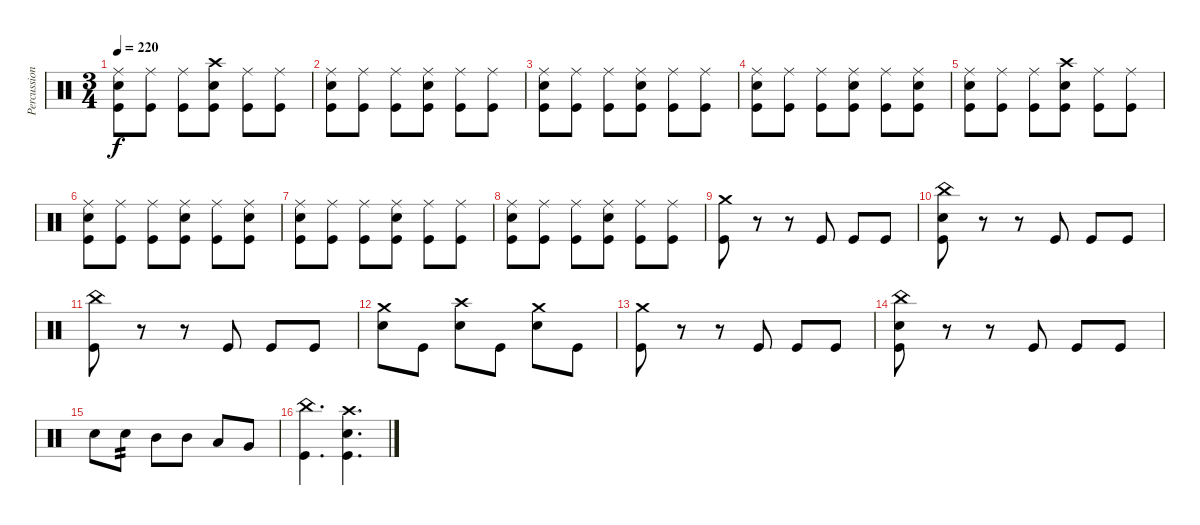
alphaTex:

\track ("Percussion" "Percussion") {instrument percussion}
\staff {score}
\articulation defaults
\ts (3 4)
\tempo 220
\clef neutral
\ks c
("Ride (middle)" "Electric Snare (hit)" "Kick (hit)").8{dy f} ("Ride (middle)" "Kick (hit)").8 ("Ride (middle)" "Kick (hit)").8 ("Crash high (hit)" "Electric Snare (hit)" "Kick (hit)").8 ("Ride (middle)" "Kick (hit)").8 ("Ride (middle)" "Kick (hit)").8 |
("Ride (middle)" "Electric Snare (hit)" "Kick (hit)").8 ("Ride (middle)" "Kick (hit)").8 ("Ride (middle)" "Kick (hit)").8 ("Ride (middle)" "Electric Snare (hit)" "Kick (hit)").8 ("Ride (middle)" "Kick (hit)").8 ("Ride (middle)" "Kick (hit)").8 |
("Ride (middle)" "Electric Snare (hit)" "Kick (hit)").8 ("Ride (middle)" "Kick (hit)").8 ("Ride (middle)" "Kick (hit)").8 ("Ride (middle)" "Electric Snare (hit)" "Kick (hit)").8 ("Ride (middle)" "Kick (hit)").8 ("Ride (middle)" "Kick (hit)").8 |
("Ride (middle)" "Electric Snare (hit)" "Kick (hit)").8 ("Ride (middle)" "Kick (hit)").8 ("Ride (middle)" "Kick (hit)").8 ("Ride (middle)" "Electric Snare (hit)" "Kick (hit)").8 ("Ride (middle)" "Kick (hit)").8 ("Ride (middle)" "Electric Snare (hit)" "Kick (hit)").8 |
("Ride (middle)" "Electric Snare (hit)" "Kick (hit)").8 ("Ride (middle)" "Kick (hit)").8 ("Ride (middle)" "Kick (hit)").8 ("Crash high (hit)" "Electric Snare (hit)" "Kick (hit)").8 ("Ride (middle)" "Kick (hit)").8 ("Ride (middle)" "Kick (hit)").8 |
("Ride (middle)" "Electric Snare (hit)" "Kick (hit)").8 ("Ride (middle)" "Kick (hit)").8 ("Ride (middle)" "Kick (hit)").8 ("Ride (middle)" "Electric Snare (hit)" "Kick (hit)").8 ("Ride (middle)" "Kick (hit)").8 ("Ride (middle)" "Electric Snare (hit)" "Kick (hit)").8 |
("Ride (middle)" "Electric Snare (hit)" "Kick (hit)").8 ("Ride (middle)" "Kick (hit)").8 ("Ride (middle)" "Kick (hit)").8 ("Ride (middle)" "Electric Snare (hit)" "Kick (hit)").8 ("Ride (middle)" "Kick (hit)").8 ("Ride (middle)" "Kick (hit)").8 |
("Ride (middle)" "Electric Snare (hit)" "Kick (hit)").8 ("Ride (middle)" "Kick (hit)").8 ("Ride (middle)" "Kick (hit)").8 ("Ride (middle)" "Electric Snare (hit)" "Kick (hit)").8 ("Ride (middle)" "Kick (hit)").8 ("Ride (middle)" "Kick (hit)").8 |
("Crash medium (hit)" "Kick (hit)").8 r.8 r.8 "Kick (hit)".8 "Kick (hit)".8 "Kick (hit)".8 |
("China (hit)" "Electric Snare (hit)" "Kick (hit)").8 r.8 r.8 "Kick (hit)".8 "Kick (hit)".8 "Kick (hit)".8 |
("China (hit)" "Kick (hit)").8 r.8 r.8 "Kick (hit)".8 "Kick (hit)".8 "Kick (hit)".8 |
("Crash medium (hit)" "Electric Snare (hit)").8 "Kick (hit)".8 ("Crash high (hit)" "Electric Snare (hit)").8 "Kick (hit)".8 ("Crash medium (hit)" "Electric Snare (hit)").8 "Kick (hit)".8 |
("Crash medium (hit)" "Kick (hit)").8 r.8 r.8 "Kick (hit)".8 "Kick (hit)".8 "Kick (hit)".8 |
("China (hit)" "Electric Snare (hit)" "Kick (hit)").8 r.8 r.8 "Kick (hit)".8 "Kick (hit)".8 "Kick (hit)".8 |
"Electric Snare (hit)".8 "Electric Snare (hit)".8{tp 2} "Mid Tom (hit)".8 "Mid Tom (hit)".8 "Low Tom (hit)".8 "Very Low Tom (hit)".8 |
("China (hit)" "Kick (hit)").4{d} ("Crash high (hit)" "Electric Snare (hit)" "Kick (hit)").4{d}
